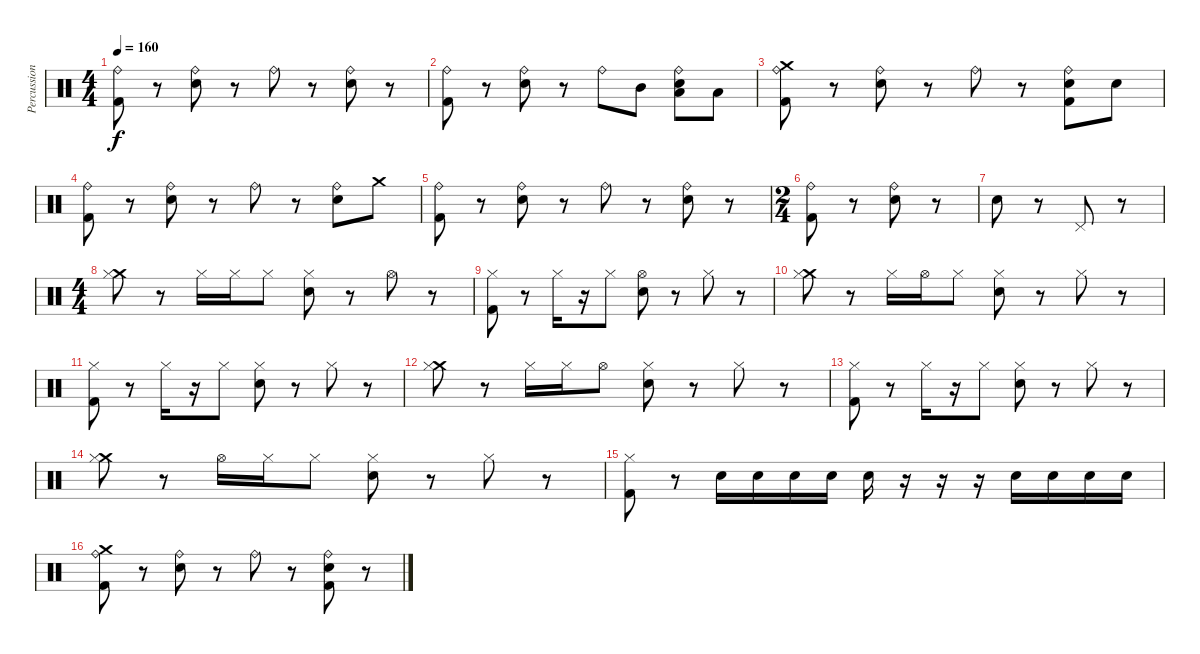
\track ("Percussion" "Percussion") {instrument percussion}
\staff {score}
\articulation defaults
\ts (4 4)
\tempo 160
\clef neutral
\ks c
("Ride (bell)" "Kick (hit) 2").8{dy f} r.8 ("Ride (bell)" "Electric Snare (hit)").8 r.8 "Ride (bell)".8 r.8 ("Ride (bell)" "Electric Snare (hit)").8 r.8 |
("Ride (bell)" "Kick (hit) 2").8 r.8 ("Ride (bell)" "Electric Snare (hit)").8 r.8 "Ride (bell)".8 "Mid Tom (hit)".8 ("Low Tom (hit)" "Ride (bell)" "Electric Snare (hit)").8 "Low Floor Tom (hit)".8 |
("Crash medium (hit)" "Ride (bell)" "Kick (hit) 2").8 r.8 ("Ride (bell)" "Electric Snare (hit)").8 r.8 "Ride (bell)".8 r.8 ("Kick (hit) 2" "Ride (bell)" "Electric Snare (hit)").8 "Electric Snare (hit)".8 |
("Ride (bell)" "Kick (hit) 2").8 r.8 ("Ride (bell)" "Electric Snare (hit)").8 r.8 "Ride (bell)".8 r.8 ("Ride (bell)" "Electric Snare (hit)").8 "Crash medium (hit)".8 |
("Ride (bell)" "Kick (hit) 2").8 r.8 ("Ride (bell)" "Electric Snare (hit)").8 r.8 "Ride (bell)".8 r.8 ("Ride (bell)" "Electric Snare (hit)").8 r.8 |
\ts (2 4)
("Ride (bell)" "Kick (hit) 2").8 r.8 ("Ride (bell)" "Electric Snare (hit)").8 r.8 |
"Electric Snare (hit)".8 r.8 "Pedal Hi-Hat (hit)".8 r.8 |
\ts (4 4)
("Crash medium (hit)" "Hi-Hat (closed)").8 r.8 "Hi-Hat (closed)".16 "Hi-Hat (closed)".16 "Hi-Hat (closed)".8 ("Electric Snare (hit)" "Hi-Hat (closed)").8 r.8 "Hi-Hat (open)".8 r.8 |
("Hi-Hat (closed)" "Kick (hit) 2").8 r.8 "Hi-Hat (closed)".16 r.16 "Hi-Hat (closed)".8 ("Electric Snare (hit)" "Hi-Hat (open)").8 r.8 "Hi-Hat (closed)".8 r.8 |
("Crash medium (hit)" "Hi-Hat (closed)").8 r.8 "Hi-Hat (closed)".16 "Hi-Hat (open)".16 "Hi-Hat (closed)".8 ("Electric Snare (hit)" "Hi-Hat (closed)").8 r.8 "Hi-Hat (closed)".8 r.8 |
("Hi-Hat (closed)" "Kick (hit) 2").8 r.8 "Hi-Hat (closed)".16 r.16 "Hi-Hat (closed)".8 ("Electric Snare (hit)" "Hi-Hat (closed)").8 r.8 "Hi-Hat (closed)".8 r.8 |
("Crash medium (hit)" "Hi-Hat (closed)").8 r.8 "Hi-Hat (closed)".16 "Hi-Hat (closed)".16 "Hi-Hat (open)".8 ("Electric Snare (hit)" "Hi-Hat (closed)").8 r.8 "Hi-Hat (closed)".8 r.8 |
("Hi-Hat (closed)" "Kick (hit) 2").8 r.8 "Hi-Hat (closed)".16 r.16 "Hi-Hat (closed)".8 ("Electric Snare (hit)" "Hi-Hat (closed)").8 r.8 "Hi-Hat (closed)".8 r.8 |
("Crash medium (hit)" "Hi-Hat (closed)").8 r.8 "Hi-Hat (open)".16 "Hi-Hat (closed)".16 "Hi-Hat (closed)".8 ("Electric Snare (hit)" "Hi-Hat (closed)").8 r.8 "Hi-Hat (closed)".8 r.8 |
("Hi-Hat (closed)" "Kick (hit) 2").8 r.8 "Electric Snare (hit)".16 "Electric Snare (hit)".16 "Electric Snare (hit)".16 "Electric Snare (hit)".16 "Electric Snare (hit)".16 r.16 r.16 r.16 "Electric Snare (hit)".16 "Electric Snare (hit)".16 "Electric Snare (hit)".16 "Electric Snare (hit)".16 |
("Crash medium (hit)" "Ride (bell)" "Kick (hit) 2").8 r.8 ("Ride (bell)" "Electric Snare (hit)").8 r.8 "Ride (bell)".8 r.8 ("Kick (hit) 2" "Ride (bell)" "Electric Snare (hit)").8 r.8
